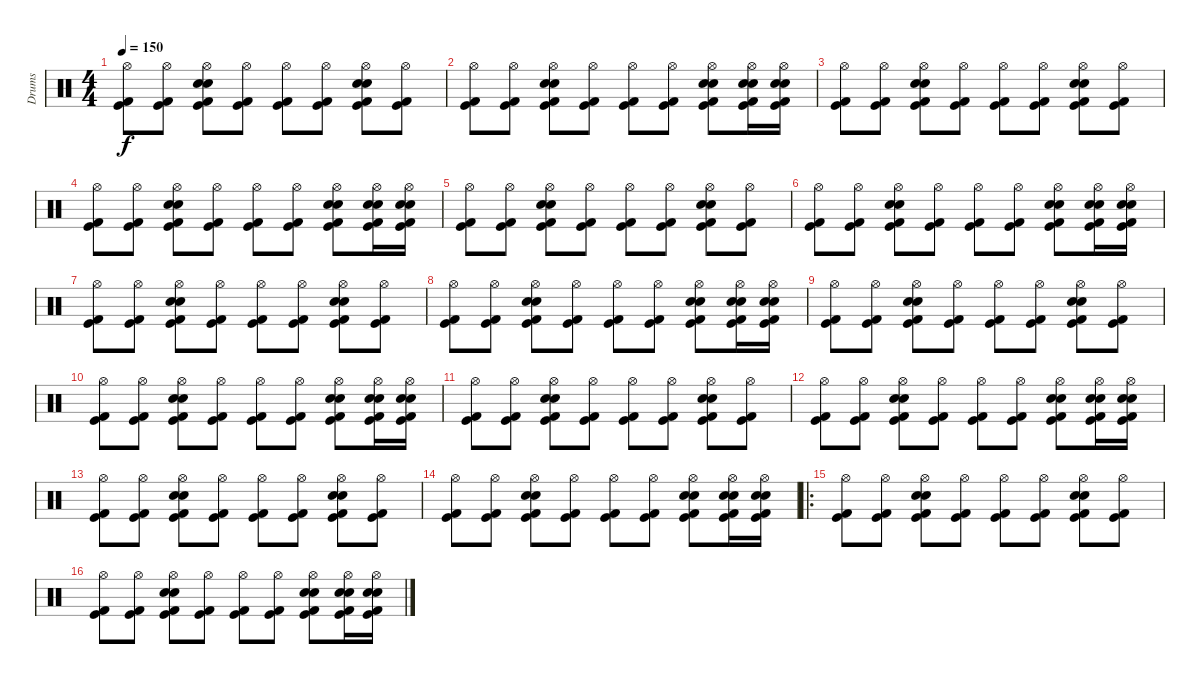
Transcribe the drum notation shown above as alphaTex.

\track ("Drums" "Drums") {instrument percussion}
\staff {score}
\articulation defaults
\ts (4 4)
\tempo 150
\clef neutral
\ks c
("Hi-Hat (open)" "Kick (hit)" "Kick (hit) 2").8{dy f} ("Hi-Hat (open)" "Kick (hit)" "Kick (hit) 2").8 ("Snare (hit) 2" "Electric Snare (hit)" "Hi-Hat (open)" "Kick (hit)" "Kick (hit) 2").8 ("Hi-Hat (open)" "Kick (hit)" "Kick (hit) 2").8 ("Hi-Hat (open)" "Kick (hit)" "Kick (hit) 2").8 ("Hi-Hat (open)" "Kick (hit)" "Kick (hit) 2").8 ("Snare (hit) 2" "Electric Snare (hit)" "Hi-Hat (open)" "Kick (hit)" "Kick (hit) 2").8 ("Hi-Hat (open)" "Kick (hit)" "Kick (hit) 2").8 |
("Hi-Hat (open)" "Kick (hit)" "Kick (hit) 2").8 ("Hi-Hat (open)" "Kick (hit)" "Kick (hit) 2").8 ("Snare (hit) 2" "Electric Snare (hit)" "Hi-Hat (open)" "Kick (hit)" "Kick (hit) 2").8 ("Hi-Hat (open)" "Kick (hit)" "Kick (hit) 2").8 ("Hi-Hat (open)" "Kick (hit)" "Kick (hit) 2").8 ("Hi-Hat (open)" "Kick (hit)" "Kick (hit) 2").8 ("Snare (hit) 2" "Electric Snare (hit)" "Hi-Hat (open)" "Kick (hit)" "Kick (hit) 2").8 ("Snare (hit) 2" "Electric Snare (hit)" "Hi-Hat (open)" "Kick (hit)" "Kick (hit) 2").16 ("Snare (hit) 2" "Electric Snare (hit)" "Hi-Hat (open)" "Kick (hit)" "Kick (hit) 2").16 |
("Hi-Hat (open)" "Kick (hit)" "Kick (hit) 2").8 ("Hi-Hat (open)" "Kick (hit)" "Kick (hit) 2").8 ("Snare (hit) 2" "Electric Snare (hit)" "Hi-Hat (open)" "Kick (hit)" "Kick (hit) 2").8 ("Hi-Hat (open)" "Kick (hit)" "Kick (hit) 2").8 ("Hi-Hat (open)" "Kick (hit)" "Kick (hit) 2").8 ("Hi-Hat (open)" "Kick (hit)" "Kick (hit) 2").8 ("Snare (hit) 2" "Electric Snare (hit)" "Hi-Hat (open)" "Kick (hit)" "Kick (hit) 2").8 ("Hi-Hat (open)" "Kick (hit)" "Kick (hit) 2").8 |
("Hi-Hat (open)" "Kick (hit)" "Kick (hit) 2").8 ("Hi-Hat (open)" "Kick (hit)" "Kick (hit) 2").8 ("Snare (hit) 2" "Electric Snare (hit)" "Hi-Hat (open)" "Kick (hit)" "Kick (hit) 2").8 ("Hi-Hat (open)" "Kick (hit)" "Kick (hit) 2").8 ("Hi-Hat (open)" "Kick (hit)" "Kick (hit) 2").8 ("Hi-Hat (open)" "Kick (hit)" "Kick (hit) 2").8 ("Snare (hit) 2" "Electric Snare (hit)" "Hi-Hat (open)" "Kick (hit)" "Kick (hit) 2").8 ("Snare (hit) 2" "Electric Snare (hit)" "Hi-Hat (open)" "Kick (hit)" "Kick (hit) 2").16 ("Snare (hit) 2" "Electric Snare (hit)" "Hi-Hat (open)" "Kick (hit)" "Kick (hit) 2").16 |
("Hi-Hat (open)" "Kick (hit)" "Kick (hit) 2").8 ("Hi-Hat (open)" "Kick (hit)" "Kick (hit) 2").8 ("Snare (hit) 2" "Electric Snare (hit)" "Hi-Hat (open)" "Kick (hit)" "Kick (hit) 2").8 ("Hi-Hat (open)" "Kick (hit)" "Kick (hit) 2").8 ("Hi-Hat (open)" "Kick (hit)" "Kick (hit) 2").8 ("Hi-Hat (open)" "Kick (hit)" "Kick (hit) 2").8 ("Snare (hit) 2" "Electric Snare (hit)" "Hi-Hat (open)" "Kick (hit)" "Kick (hit) 2").8 ("Hi-Hat (open)" "Kick (hit)" "Kick (hit) 2").8 |
("Hi-Hat (open)" "Kick (hit)" "Kick (hit) 2").8 ("Hi-Hat (open)" "Kick (hit)" "Kick (hit) 2").8 ("Snare (hit) 2" "Electric Snare (hit)" "Hi-Hat (open)" "Kick (hit)" "Kick (hit) 2").8 ("Hi-Hat (open)" "Kick (hit)" "Kick (hit) 2").8 ("Hi-Hat (open)" "Kick (hit)" "Kick (hit) 2").8 ("Hi-Hat (open)" "Kick (hit)" "Kick (hit) 2").8 ("Snare (hit) 2" "Electric Snare (hit)" "Hi-Hat (open)" "Kick (hit)" "Kick (hit) 2").8 ("Snare (hit) 2" "Electric Snare (hit)" "Hi-Hat (open)" "Kick (hit)" "Kick (hit) 2").16 ("Snare (hit) 2" "Electric Snare (hit)" "Hi-Hat (open)" "Kick (hit)" "Kick (hit) 2").16 |
("Hi-Hat (open)" "Kick (hit)" "Kick (hit) 2").8 ("Hi-Hat (open)" "Kick (hit)" "Kick (hit) 2").8 ("Snare (hit) 2" "Electric Snare (hit)" "Hi-Hat (open)" "Kick (hit)" "Kick (hit) 2").8 ("Hi-Hat (open)" "Kick (hit)" "Kick (hit) 2").8 ("Hi-Hat (open)" "Kick (hit)" "Kick (hit) 2").8 ("Hi-Hat (open)" "Kick (hit)" "Kick (hit) 2").8 ("Snare (hit) 2" "Electric Snare (hit)" "Hi-Hat (open)" "Kick (hit)" "Kick (hit) 2").8 ("Hi-Hat (open)" "Kick (hit)" "Kick (hit) 2").8 |
("Hi-Hat (open)" "Kick (hit)" "Kick (hit) 2").8 ("Hi-Hat (open)" "Kick (hit)" "Kick (hit) 2").8 ("Snare (hit) 2" "Electric Snare (hit)" "Hi-Hat (open)" "Kick (hit)" "Kick (hit) 2").8 ("Hi-Hat (open)" "Kick (hit)" "Kick (hit) 2").8 ("Hi-Hat (open)" "Kick (hit)" "Kick (hit) 2").8 ("Hi-Hat (open)" "Kick (hit)" "Kick (hit) 2").8 ("Snare (hit) 2" "Electric Snare (hit)" "Hi-Hat (open)" "Kick (hit)" "Kick (hit) 2").8 ("Snare (hit) 2" "Electric Snare (hit)" "Hi-Hat (open)" "Kick (hit)" "Kick (hit) 2").16 ("Snare (hit) 2" "Electric Snare (hit)" "Hi-Hat (open)" "Kick (hit)" "Kick (hit) 2").16 |
("Hi-Hat (open)" "Kick (hit)" "Kick (hit) 2").8 ("Hi-Hat (open)" "Kick (hit)" "Kick (hit) 2").8 ("Snare (hit) 2" "Electric Snare (hit)" "Hi-Hat (open)" "Kick (hit)" "Kick (hit) 2").8 ("Hi-Hat (open)" "Kick (hit)" "Kick (hit) 2").8 ("Hi-Hat (open)" "Kick (hit)" "Kick (hit) 2").8 ("Hi-Hat (open)" "Kick (hit)" "Kick (hit) 2").8 ("Snare (hit) 2" "Electric Snare (hit)" "Hi-Hat (open)" "Kick (hit)" "Kick (hit) 2").8 ("Hi-Hat (open)" "Kick (hit)" "Kick (hit) 2").8 |
("Hi-Hat (open)" "Kick (hit)" "Kick (hit) 2").8 ("Hi-Hat (open)" "Kick (hit)" "Kick (hit) 2").8 ("Snare (hit) 2" "Electric Snare (hit)" "Hi-Hat (open)" "Kick (hit)" "Kick (hit) 2").8 ("Hi-Hat (open)" "Kick (hit)" "Kick (hit) 2").8 ("Hi-Hat (open)" "Kick (hit)" "Kick (hit) 2").8 ("Hi-Hat (open)" "Kick (hit)" "Kick (hit) 2").8 ("Snare (hit) 2" "Electric Snare (hit)" "Hi-Hat (open)" "Kick (hit)" "Kick (hit) 2").8 ("Snare (hit) 2" "Electric Snare (hit)" "Hi-Hat (open)" "Kick (hit)" "Kick (hit) 2").16 ("Snare (hit) 2" "Electric Snare (hit)" "Hi-Hat (open)" "Kick (hit)" "Kick (hit) 2").16 |
("Hi-Hat (open)" "Kick (hit)" "Kick (hit) 2").8 ("Hi-Hat (open)" "Kick (hit)" "Kick (hit) 2").8 ("Snare (hit) 2" "Electric Snare (hit)" "Hi-Hat (open)" "Kick (hit)" "Kick (hit) 2").8 ("Hi-Hat (open)" "Kick (hit)" "Kick (hit) 2").8 ("Hi-Hat (open)" "Kick (hit)" "Kick (hit) 2").8 ("Hi-Hat (open)" "Kick (hit)" "Kick (hit) 2").8 ("Snare (hit) 2" "Electric Snare (hit)" "Hi-Hat (open)" "Kick (hit)" "Kick (hit) 2").8 ("Hi-Hat (open)" "Kick (hit)" "Kick (hit) 2").8 |
("Hi-Hat (open)" "Kick (hit)" "Kick (hit) 2").8 ("Hi-Hat (open)" "Kick (hit)" "Kick (hit) 2").8 ("Snare (hit) 2" "Electric Snare (hit)" "Hi-Hat (open)" "Kick (hit)" "Kick (hit) 2").8 ("Hi-Hat (open)" "Kick (hit)" "Kick (hit) 2").8 ("Hi-Hat (open)" "Kick (hit)" "Kick (hit) 2").8 ("Hi-Hat (open)" "Kick (hit)" "Kick (hit) 2").8 ("Snare (hit) 2" "Electric Snare (hit)" "Hi-Hat (open)" "Kick (hit)" "Kick (hit) 2").8 ("Snare (hit) 2" "Electric Snare (hit)" "Hi-Hat (open)" "Kick (hit)" "Kick (hit) 2").16 ("Snare (hit) 2" "Electric Snare (hit)" "Hi-Hat (open)" "Kick (hit)" "Kick (hit) 2").16 |
("Hi-Hat (open)" "Kick (hit)" "Kick (hit) 2").8 ("Hi-Hat (open)" "Kick (hit)" "Kick (hit) 2").8 ("Snare (hit) 2" "Electric Snare (hit)" "Hi-Hat (open)" "Kick (hit)" "Kick (hit) 2").8 ("Hi-Hat (open)" "Kick (hit)" "Kick (hit) 2").8 ("Hi-Hat (open)" "Kick (hit)" "Kick (hit) 2").8 ("Hi-Hat (open)" "Kick (hit)" "Kick (hit) 2").8 ("Snare (hit) 2" "Electric Snare (hit)" "Hi-Hat (open)" "Kick (hit)" "Kick (hit) 2").8 ("Hi-Hat (open)" "Kick (hit)" "Kick (hit) 2").8 |
("Hi-Hat (open)" "Kick (hit)" "Kick (hit) 2").8 ("Hi-Hat (open)" "Kick (hit)" "Kick (hit) 2").8 ("Snare (hit) 2" "Electric Snare (hit)" "Hi-Hat (open)" "Kick (hit)" "Kick (hit) 2").8 ("Hi-Hat (open)" "Kick (hit)" "Kick (hit) 2").8 ("Hi-Hat (open)" "Kick (hit)" "Kick (hit) 2").8 ("Hi-Hat (open)" "Kick (hit)" "Kick (hit) 2").8 ("Snare (hit) 2" "Electric Snare (hit)" "Hi-Hat (open)" "Kick (hit)" "Kick (hit) 2").8 ("Snare (hit) 2" "Electric Snare (hit)" "Hi-Hat (open)" "Kick (hit)" "Kick (hit) 2").16 ("Snare (hit) 2" "Electric Snare (hit)" "Hi-Hat (open)" "Kick (hit)" "Kick (hit) 2").16 |
\ro
("Hi-Hat (open)" "Kick (hit)" "Kick (hit) 2").8 ("Hi-Hat (open)" "Kick (hit)" "Kick (hit) 2").8 ("Snare (hit) 2" "Electric Snare (hit)" "Hi-Hat (open)" "Kick (hit)" "Kick (hit) 2").8 ("Hi-Hat (open)" "Kick (hit)" "Kick (hit) 2").8 ("Hi-Hat (open)" "Kick (hit)" "Kick (hit) 2").8 ("Hi-Hat (open)" "Kick (hit)" "Kick (hit) 2").8 ("Snare (hit) 2" "Electric Snare (hit)" "Hi-Hat (open)" "Kick (hit)" "Kick (hit) 2").8 ("Hi-Hat (open)" "Kick (hit)" "Kick (hit) 2").8 |
("Hi-Hat (open)" "Kick (hit)" "Kick (hit) 2").8 ("Hi-Hat (open)" "Kick (hit)" "Kick (hit) 2").8 ("Snare (hit) 2" "Electric Snare (hit)" "Hi-Hat (open)" "Kick (hit)" "Kick (hit) 2").8 ("Hi-Hat (open)" "Kick (hit)" "Kick (hit) 2").8 ("Hi-Hat (open)" "Kick (hit)" "Kick (hit) 2").8 ("Hi-Hat (open)" "Kick (hit)" "Kick (hit) 2").8 ("Snare (hit) 2" "Electric Snare (hit)" "Hi-Hat (open)" "Kick (hit)" "Kick (hit) 2").8 ("Snare (hit) 2" "Electric Snare (hit)" "Hi-Hat (open)" "Kick (hit)" "Kick (hit) 2").16 ("Snare (hit) 2" "Electric Snare (hit)" "Hi-Hat (open)" "Kick (hit)" "Kick (hit) 2").16
